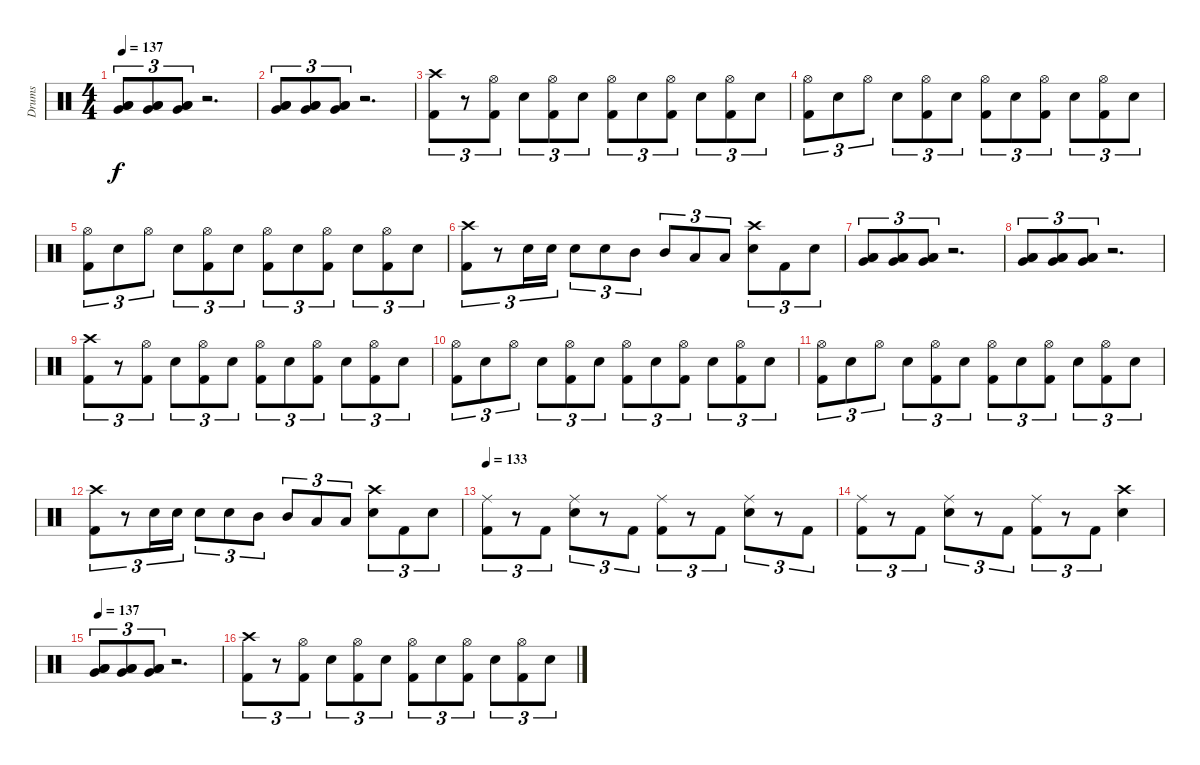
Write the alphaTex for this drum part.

\track ("Drums" "Drums") {instrument percussion}
\staff {score}
\articulation defaults
\ts (4 4)
\tempo 137
\clef neutral
\ks c
("Low Tom (hit)" "Very Low Tom (hit)" "Low Floor Tom (hit)").8{tu (3 2) dy f} ("Low Tom (hit)" "Very Low Tom (hit)" "Low Floor Tom (hit)").8{tu (3 2)} ("Low Tom (hit)" "Very Low Tom (hit)" "Low Floor Tom (hit)").8{tu (3 2)} r.2{d} |
("Low Tom (hit)" "Very Low Tom (hit)" "Low Floor Tom (hit)").8{tu (3 2)} ("Low Tom (hit)" "Very Low Tom (hit)" "Low Floor Tom (hit)").8{tu (3 2)} ("Low Tom (hit)" "Very Low Tom (hit)" "Low Floor Tom (hit)").8{tu (3 2)} r.2{d} |
("Crash high (hit)" "Kick (hit) 2").8{tu (3 2)} r.8{tu (3 2)} ("Hi-Hat (open)" "Kick (hit) 2").8{tu (3 2)} "Electric Snare (hit)".8{tu (3 2)} ("Hi-Hat (open)" "Kick (hit) 2").8{tu (3 2)} "Electric Snare (hit)".8{tu (3 2)} ("Hi-Hat (open)" "Kick (hit) 2").8{tu (3 2)} "Electric Snare (hit)".8{tu (3 2)} ("Hi-Hat (open)" "Kick (hit) 2").8{tu (3 2)} "Electric Snare (hit)".8{tu (3 2)} ("Hi-Hat (open)" "Kick (hit) 2").8{tu (3 2)} "Electric Snare (hit)".8{tu (3 2)} |
("Hi-Hat (open)" "Kick (hit) 2").8{tu (3 2)} "Electric Snare (hit)".8{tu (3 2)} "Hi-Hat (open)".8{tu (3 2)} "Electric Snare (hit)".8{tu (3 2)} ("Hi-Hat (open)" "Kick (hit) 2").8{tu (3 2)} "Electric Snare (hit)".8{tu (3 2)} ("Hi-Hat (open)" "Kick (hit) 2").8{tu (3 2)} "Electric Snare (hit)".8{tu (3 2)} ("Hi-Hat (open)" "Kick (hit) 2").8{tu (3 2)} "Electric Snare (hit)".8{tu (3 2)} ("Hi-Hat (open)" "Kick (hit) 2").8{tu (3 2)} "Electric Snare (hit)".8{tu (3 2)} |
("Hi-Hat (open)" "Kick (hit) 2").8{tu (3 2)} "Electric Snare (hit)".8{tu (3 2)} "Hi-Hat (open)".8{tu (3 2)} "Electric Snare (hit)".8{tu (3 2)} ("Hi-Hat (open)" "Kick (hit) 2").8{tu (3 2)} "Electric Snare (hit)".8{tu (3 2)} ("Hi-Hat (open)" "Kick (hit) 2").8{tu (3 2)} "Electric Snare (hit)".8{tu (3 2)} ("Hi-Hat (open)" "Kick (hit) 2").8{tu (3 2)} "Electric Snare (hit)".8{tu (3 2)} ("Hi-Hat (open)" "Kick (hit) 2").8{tu (3 2)} "Electric Snare (hit)".8{tu (3 2)} |
("Crash high (hit)" "Kick (hit) 2").8{tu (3 2)} r.8{tu (3 2)} "Electric Snare (hit)".16{tu (3 2)} "Electric Snare (hit)".16{tu (3 2)} "Electric Snare (hit)".8{tu (3 2)} "Electric Snare (hit)".8{tu (3 2)} "Mid Tom (hit)".8{tu (3 2)} "Mid Tom (hit)".8{tu (3 2)} "Low Tom (hit)".8{tu (3 2)} "Low Tom (hit)".8{tu (3 2)} ("Crash high (hit)" "Electric Snare (hit)").8{tu (3 2)} "Kick (hit) 2".8{tu (3 2)} "Electric Snare (hit)".8{tu (3 2)} |
("Low Tom (hit)" "Very Low Tom (hit)" "Low Floor Tom (hit)").8{tu (3 2)} ("Low Tom (hit)" "Very Low Tom (hit)" "Low Floor Tom (hit)").8{tu (3 2)} ("Low Tom (hit)" "Very Low Tom (hit)" "Low Floor Tom (hit)").8{tu (3 2)} r.2{d} |
("Low Tom (hit)" "Very Low Tom (hit)" "Low Floor Tom (hit)").8{tu (3 2)} ("Low Tom (hit)" "Very Low Tom (hit)" "Low Floor Tom (hit)").8{tu (3 2)} ("Low Tom (hit)" "Very Low Tom (hit)" "Low Floor Tom (hit)").8{tu (3 2)} r.2{d} |
("Crash high (hit)" "Kick (hit) 2").8{tu (3 2)} r.8{tu (3 2)} ("Hi-Hat (open)" "Kick (hit) 2").8{tu (3 2)} "Electric Snare (hit)".8{tu (3 2)} ("Hi-Hat (open)" "Kick (hit) 2").8{tu (3 2)} "Electric Snare (hit)".8{tu (3 2)} ("Hi-Hat (open)" "Kick (hit) 2").8{tu (3 2)} "Electric Snare (hit)".8{tu (3 2)} ("Hi-Hat (open)" "Kick (hit) 2").8{tu (3 2)} "Electric Snare (hit)".8{tu (3 2)} ("Hi-Hat (open)" "Kick (hit) 2").8{tu (3 2)} "Electric Snare (hit)".8{tu (3 2)} |
("Hi-Hat (open)" "Kick (hit) 2").8{tu (3 2)} "Electric Snare (hit)".8{tu (3 2)} "Hi-Hat (open)".8{tu (3 2)} "Electric Snare (hit)".8{tu (3 2)} ("Hi-Hat (open)" "Kick (hit) 2").8{tu (3 2)} "Electric Snare (hit)".8{tu (3 2)} ("Hi-Hat (open)" "Kick (hit) 2").8{tu (3 2)} "Electric Snare (hit)".8{tu (3 2)} ("Hi-Hat (open)" "Kick (hit) 2").8{tu (3 2)} "Electric Snare (hit)".8{tu (3 2)} ("Hi-Hat (open)" "Kick (hit) 2").8{tu (3 2)} "Electric Snare (hit)".8{tu (3 2)} |
("Hi-Hat (open)" "Kick (hit) 2").8{tu (3 2)} "Electric Snare (hit)".8{tu (3 2)} "Hi-Hat (open)".8{tu (3 2)} "Electric Snare (hit)".8{tu (3 2)} ("Hi-Hat (open)" "Kick (hit) 2").8{tu (3 2)} "Electric Snare (hit)".8{tu (3 2)} ("Hi-Hat (open)" "Kick (hit) 2").8{tu (3 2)} "Electric Snare (hit)".8{tu (3 2)} ("Hi-Hat (open)" "Kick (hit) 2").8{tu (3 2)} "Electric Snare (hit)".8{tu (3 2)} ("Hi-Hat (open)" "Kick (hit) 2").8{tu (3 2)} "Electric Snare (hit)".8{tu (3 2)} |
("Crash high (hit)" "Kick (hit) 2").8{tu (3 2)} r.8{tu (3 2)} "Electric Snare (hit)".16{tu (3 2)} "Electric Snare (hit)".16{tu (3 2)} "Electric Snare (hit)".8{tu (3 2)} "Electric Snare (hit)".8{tu (3 2)} "Mid Tom (hit)".8{tu (3 2)} "Mid Tom (hit)".8{tu (3 2)} "Low Tom (hit)".8{tu (3 2)} "Low Tom (hit)".8{tu (3 2)} ("Crash high (hit)" "Electric Snare (hit)").8{tu (3 2)} "Kick (hit) 2".8{tu (3 2)} "Electric Snare (hit)".8{tu (3 2)} |
\tempo 133
("Ride (middle)" "Kick (hit) 2").8{tu (3 2)} r.8{tu (3 2)} "Kick (hit) 2".8{tu (3 2)} ("Ride (middle)" "Electric Snare (hit)").8{tu (3 2)} r.8{tu (3 2)} "Kick (hit) 2".8{tu (3 2)} ("Ride (middle)" "Kick (hit) 2").8{tu (3 2)} r.8{tu (3 2)} "Kick (hit) 2".8{tu (3 2)} ("Ride (middle)" "Electric Snare (hit)").8{tu (3 2)} r.8{tu (3 2)} "Kick (hit) 2".8{tu (3 2)} |
("Ride (middle)" "Kick (hit) 2").8{tu (3 2)} r.8{tu (3 2)} "Kick (hit) 2".8{tu (3 2)} ("Ride (middle)" "Electric Snare (hit)").8{tu (3 2)} r.8{tu (3 2)} "Kick (hit) 2".8{tu (3 2)} ("Ride (middle)" "Kick (hit) 2").8{tu (3 2)} r.8{tu (3 2)} "Kick (hit) 2".8{tu (3 2)} ("Crash high (hit)" "Electric Snare (hit)").4 |
\tempo 137
("Low Tom (hit)" "Very Low Tom (hit)" "Low Floor Tom (hit)").8{tu (3 2)} ("Low Tom (hit)" "Very Low Tom (hit)" "Low Floor Tom (hit)").8{tu (3 2)} ("Low Tom (hit)" "Very Low Tom (hit)" "Low Floor Tom (hit)").8{tu (3 2)} r.2{d} |
("Crash high (hit)" "Kick (hit) 2").8{tu (3 2)} r.8{tu (3 2)} ("Hi-Hat (open)" "Kick (hit) 2").8{tu (3 2)} "Electric Snare (hit)".8{tu (3 2)} ("Hi-Hat (open)" "Kick (hit) 2").8{tu (3 2)} "Electric Snare (hit)".8{tu (3 2)} ("Hi-Hat (open)" "Kick (hit) 2").8{tu (3 2)} "Electric Snare (hit)".8{tu (3 2)} ("Hi-Hat (open)" "Kick (hit) 2").8{tu (3 2)} "Electric Snare (hit)".8{tu (3 2)} ("Hi-Hat (open)" "Kick (hit) 2").8{tu (3 2)} "Electric Snare (hit)".8{tu (3 2)}
